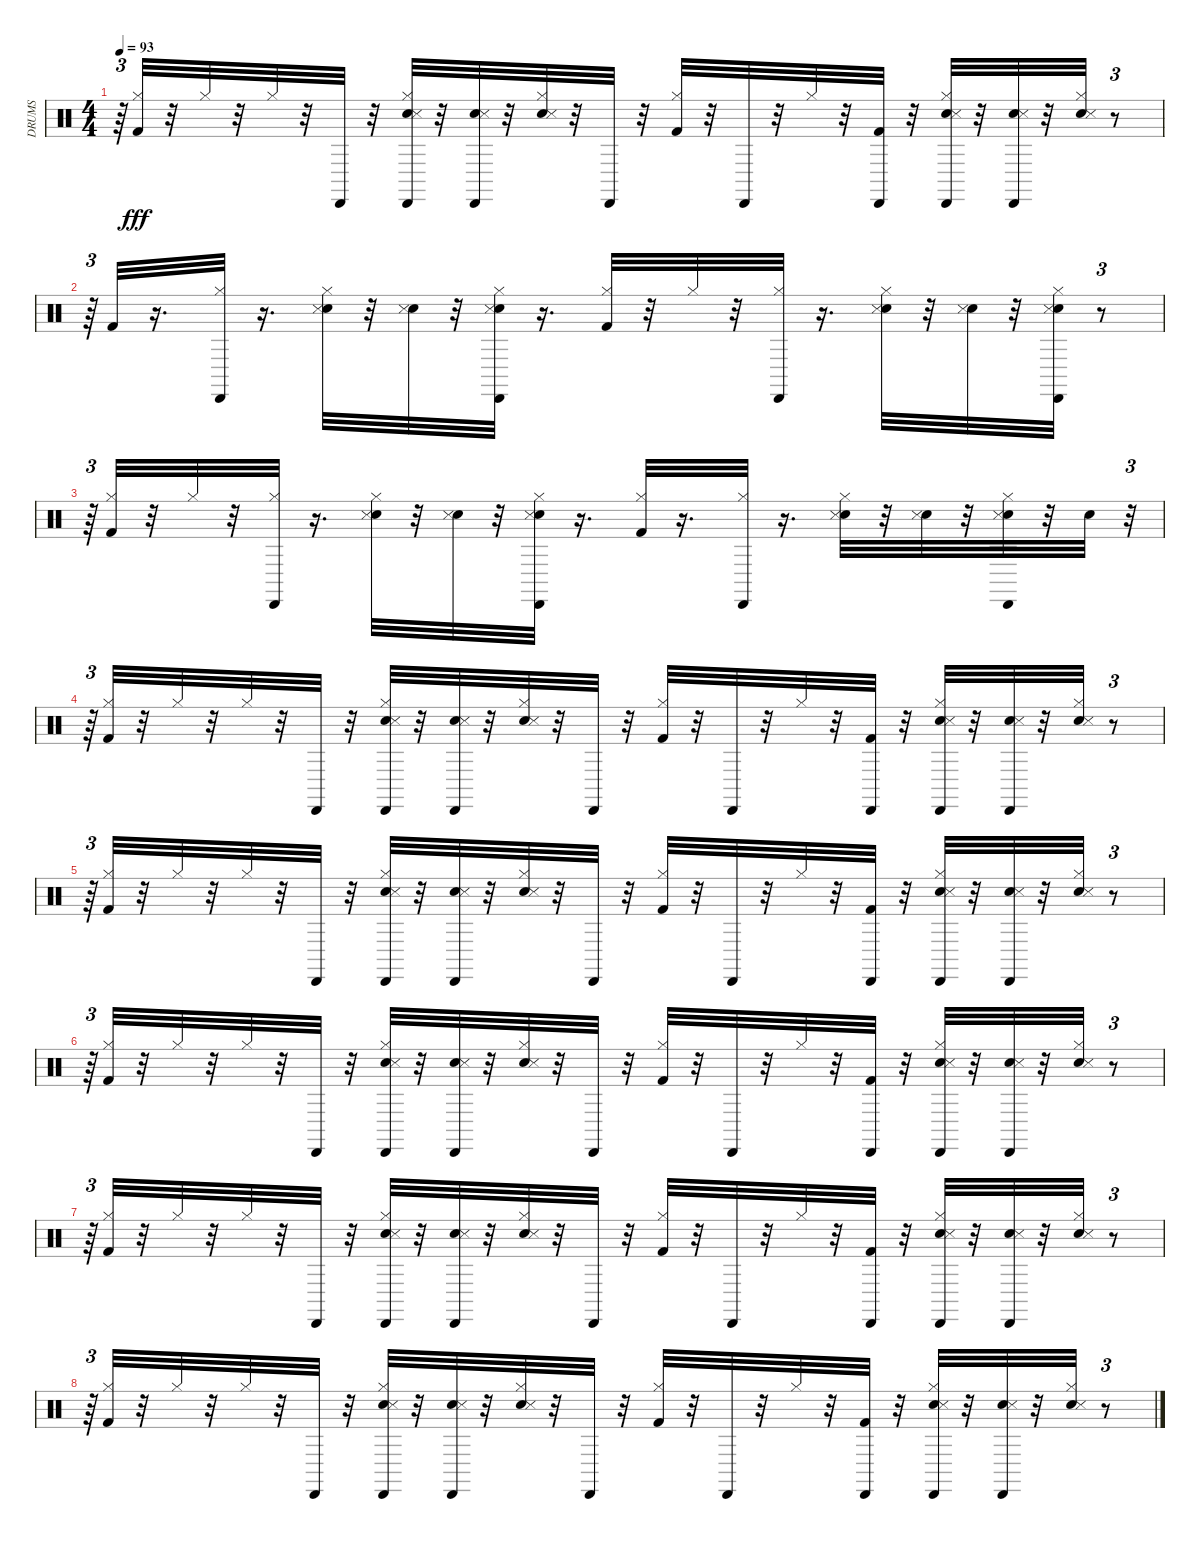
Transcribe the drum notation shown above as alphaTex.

\track ("DRUMS   " "DRUMS   ") {instrument percussion}
\staff {score}
\articulation defaults
\ts (4 4)
\tempo 93
\clef neutral
\ks c
r.64{tu (3 2) dy fff} ("Kick (hit) 2" "Hi-Hat (closed)").32 r.32 "Hi-Hat (closed)".32 r.32 "Hi-Hat (closed)".32 r.32 "Cabasa (hit)".32 r.32 ("Snare (hit) 2" "Hi-Hat (closed)" "Snare (side stick) 3" "Cabasa (hit)").32 r.32 ("Snare (hit) 2" "Snare (side stick) 3" "Cabasa (hit)").32 r.32 ("Snare (hit) 2" "Hi-Hat (closed)" "Snare (side stick) 3").32 r.32 "Cabasa (hit)".32 r.32 ("Kick (hit) 2" "Hi-Hat (closed)").32 r.32 "Cabasa (hit)".32 r.32 "Hi-Hat (closed)".32 r.32 ("Kick (hit) 2" "Cabasa (hit)").32 r.32 ("Snare (hit) 2" "Hi-Hat (closed)" "Snare (side stick) 3" "Cabasa (hit)").32 r.32 ("Snare (hit) 2" "Snare (side stick) 3" "Cabasa (hit)").32 r.32 ("Snare (hit) 2" "Hi-Hat (closed)" "Snare (side stick) 3").32 r.8{tu (3 2)} |
r.64{tu (3 2)} "Kick (hit) 2".32 r.16{d} ("Hi-Hat (closed)" "Cabasa (hit)").32 r.16{d} ("Snare (hit) 2" "Hi-Hat (closed)" "Snare (side stick) 3").32 r.32 ("Snare (hit) 2" "Snare (side stick) 3").32 r.32 ("Snare (hit) 2" "Hi-Hat (closed)" "Snare (side stick) 3" "Cabasa (hit)").32 r.16{d} ("Kick (hit) 2" "Hi-Hat (closed)").32 r.32 "Hi-Hat (closed)".32 r.32 ("Hi-Hat (closed)" "Cabasa (hit)").32 r.16{d} ("Snare (hit) 2" "Hi-Hat (closed)" "Snare (side stick) 3").32 r.32 ("Snare (hit) 2" "Snare (side stick) 3").32 r.32 ("Snare (hit) 2" "Hi-Hat (closed)" "Snare (side stick) 3" "Cabasa (hit)").32 r.8{tu (3 2)} |
r.64{tu (3 2)} ("Kick (hit) 2" "Hi-Hat (closed)").32 r.32 "Hi-Hat (closed)".32 r.32 ("Hi-Hat (closed)" "Cabasa (hit)").32 r.16{d} ("Snare (hit) 2" "Hi-Hat (closed)" "Snare (side stick) 3").32 r.32 ("Snare (hit) 2" "Snare (side stick) 3").32 r.32 ("Snare (hit) 2" "Hi-Hat (closed)" "Snare (side stick) 3" "Cabasa (hit)").32 r.16{d} ("Kick (hit) 2" "Hi-Hat (closed)").32 r.16{d} ("Hi-Hat (closed)" "Cabasa (hit)").32 r.16{d} ("Snare (hit) 2" "Hi-Hat (closed)" "Snare (side stick) 3").32 r.32 ("Snare (hit) 2" "Snare (side stick) 3").32 r.32 ("Snare (hit) 2" "Hi-Hat (closed)" "Snare (side stick) 3" "Cabasa (hit)").32 r.32 "Snare (hit) 2".32 r.32{tu (3 2)} |
r.64{tu (3 2)} ("Kick (hit) 2" "Hi-Hat (closed)").32 r.32 "Hi-Hat (closed)".32 r.32 "Hi-Hat (closed)".32 r.32 "Cabasa (hit)".32 r.32 ("Snare (hit) 2" "Hi-Hat (closed)" "Snare (side stick) 3" "Cabasa (hit)").32 r.32 ("Snare (hit) 2" "Snare (side stick) 3" "Cabasa (hit)").32 r.32 ("Snare (hit) 2" "Hi-Hat (closed)" "Snare (side stick) 3").32 r.32 "Cabasa (hit)".32 r.32 ("Kick (hit) 2" "Hi-Hat (closed)").32 r.32 "Cabasa (hit)".32 r.32 "Hi-Hat (closed)".32 r.32 ("Kick (hit) 2" "Cabasa (hit)").32 r.32 ("Snare (hit) 2" "Hi-Hat (closed)" "Snare (side stick) 3" "Cabasa (hit)").32 r.32 ("Snare (hit) 2" "Snare (side stick) 3" "Cabasa (hit)").32 r.32 ("Snare (hit) 2" "Hi-Hat (closed)" "Snare (side stick) 3").32 r.8{tu (3 2)} |
r.64{tu (3 2)} ("Kick (hit) 2" "Hi-Hat (closed)").32 r.32 "Hi-Hat (closed)".32 r.32 "Hi-Hat (closed)".32 r.32 "Cabasa (hit)".32 r.32 ("Snare (hit) 2" "Hi-Hat (closed)" "Snare (side stick) 3" "Cabasa (hit)").32 r.32 ("Snare (hit) 2" "Snare (side stick) 3" "Cabasa (hit)").32 r.32 ("Snare (hit) 2" "Hi-Hat (closed)" "Snare (side stick) 3").32 r.32 "Cabasa (hit)".32 r.32 ("Kick (hit) 2" "Hi-Hat (closed)").32 r.32 "Cabasa (hit)".32 r.32 "Hi-Hat (closed)".32 r.32 ("Kick (hit) 2" "Cabasa (hit)").32 r.32 ("Snare (hit) 2" "Hi-Hat (closed)" "Snare (side stick) 3" "Cabasa (hit)").32 r.32 ("Snare (hit) 2" "Snare (side stick) 3" "Cabasa (hit)").32 r.32 ("Snare (hit) 2" "Hi-Hat (closed)" "Snare (side stick) 3").32 r.8{tu (3 2)} |
r.64{tu (3 2)} ("Kick (hit) 2" "Hi-Hat (closed)").32 r.32 "Hi-Hat (closed)".32 r.32 "Hi-Hat (closed)".32 r.32 "Cabasa (hit)".32 r.32 ("Snare (hit) 2" "Hi-Hat (closed)" "Snare (side stick) 3" "Cabasa (hit)").32 r.32 ("Snare (hit) 2" "Snare (side stick) 3" "Cabasa (hit)").32 r.32 ("Snare (hit) 2" "Hi-Hat (closed)" "Snare (side stick) 3").32 r.32 "Cabasa (hit)".32 r.32 ("Kick (hit) 2" "Hi-Hat (closed)").32 r.32 "Cabasa (hit)".32 r.32 "Hi-Hat (closed)".32 r.32 ("Kick (hit) 2" "Cabasa (hit)").32 r.32 ("Snare (hit) 2" "Hi-Hat (closed)" "Snare (side stick) 3" "Cabasa (hit)").32 r.32 ("Snare (hit) 2" "Snare (side stick) 3" "Cabasa (hit)").32 r.32 ("Snare (hit) 2" "Hi-Hat (closed)" "Snare (side stick) 3").32 r.8{tu (3 2)} |
r.64{tu (3 2)} ("Kick (hit) 2" "Hi-Hat (closed)").32 r.32 "Hi-Hat (closed)".32 r.32 "Hi-Hat (closed)".32 r.32 "Cabasa (hit)".32 r.32 ("Snare (hit) 2" "Hi-Hat (closed)" "Snare (side stick) 3" "Cabasa (hit)").32 r.32 ("Snare (hit) 2" "Snare (side stick) 3" "Cabasa (hit)").32 r.32 ("Snare (hit) 2" "Hi-Hat (closed)" "Snare (side stick) 3").32 r.32 "Cabasa (hit)".32 r.32 ("Kick (hit) 2" "Hi-Hat (closed)").32 r.32 "Cabasa (hit)".32 r.32 "Hi-Hat (closed)".32 r.32 ("Kick (hit) 2" "Cabasa (hit)").32 r.32 ("Snare (hit) 2" "Hi-Hat (closed)" "Snare (side stick) 3" "Cabasa (hit)").32 r.32 ("Snare (hit) 2" "Snare (side stick) 3" "Cabasa (hit)").32 r.32 ("Snare (hit) 2" "Hi-Hat (closed)" "Snare (side stick) 3").32 r.8{tu (3 2)} |
r.64{tu (3 2)} ("Kick (hit) 2" "Hi-Hat (closed)").32 r.32 "Hi-Hat (closed)".32 r.32 "Hi-Hat (closed)".32 r.32 "Cabasa (hit)".32 r.32 ("Snare (hit) 2" "Hi-Hat (closed)" "Snare (side stick) 3" "Cabasa (hit)").32 r.32 ("Snare (hit) 2" "Snare (side stick) 3" "Cabasa (hit)").32 r.32 ("Snare (hit) 2" "Hi-Hat (closed)" "Snare (side stick) 3").32 r.32 "Cabasa (hit)".32 r.32 ("Kick (hit) 2" "Hi-Hat (closed)").32 r.32 "Cabasa (hit)".32 r.32 "Hi-Hat (closed)".32 r.32 ("Kick (hit) 2" "Cabasa (hit)").32 r.32 ("Snare (hit) 2" "Hi-Hat (closed)" "Snare (side stick) 3" "Cabasa (hit)").32 r.32 ("Snare (hit) 2" "Snare (side stick) 3" "Cabasa (hit)").32 r.32 ("Snare (hit) 2" "Hi-Hat (closed)" "Snare (side stick) 3").32 r.8{tu (3 2)}
